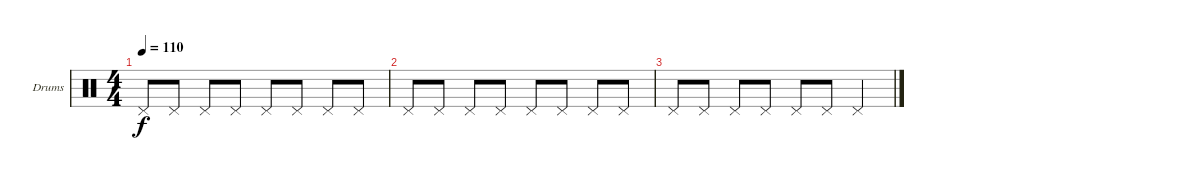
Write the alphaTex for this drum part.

\defaultSystemsLayout 4
\bracketExtendMode groupsimilarinstruments
\firstSystemTrackNameOrientation horizontal
\otherSystemsTrackNameOrientation horizontal
\track ("Е. Кулаков" "Drums") {instrument percussion}
\staff {score}
\articulation defaults
\ts (4 4)
\tempo 110
\clef neutral
\ks c "Pedal Hi-Hat (hit)".8{dy f} "Pedal Hi-Hat (hit)".8 "Pedal Hi-Hat (hit)".8 "Pedal Hi-Hat (hit)".8 "Pedal Hi-Hat (hit)".8 "Pedal Hi-Hat (hit)".8 "Pedal Hi-Hat (hit)".8 "Pedal Hi-Hat (hit)".8
|
"Pedal Hi-Hat (hit)".8 "Pedal Hi-Hat (hit)".8 "Pedal Hi-Hat (hit)".8 "Pedal Hi-Hat (hit)".8 "Pedal Hi-Hat (hit)".8 "Pedal Hi-Hat (hit)".8 "Pedal Hi-Hat (hit)".8 "Pedal Hi-Hat (hit)".8 |
"Pedal Hi-Hat (hit)".8 "Pedal Hi-Hat (hit)".8 "Pedal Hi-Hat (hit)".8 "Pedal Hi-Hat (hit)".8 "Pedal Hi-Hat (hit)".8 "Pedal Hi-Hat (hit)".8 "Pedal Hi-Hat (hit)".4
